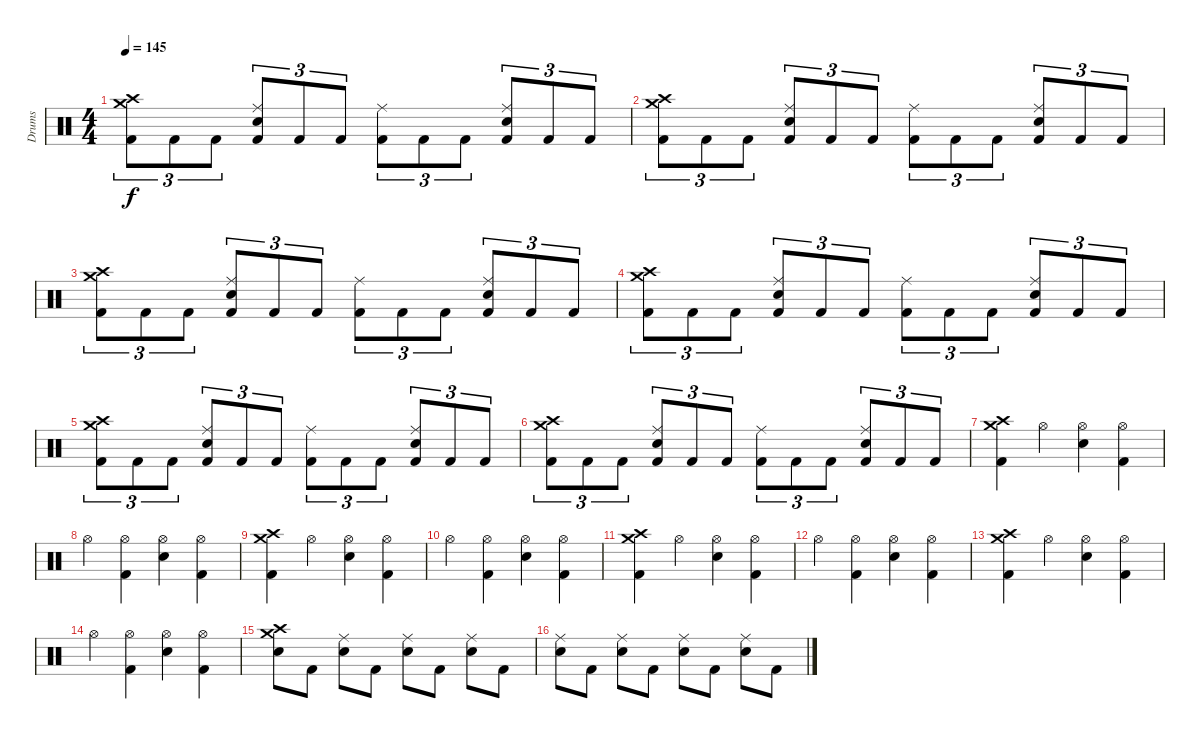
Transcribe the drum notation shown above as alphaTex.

\track ("Drums" "Drums") {instrument percussion}
\staff {score}
\articulation defaults
\ts (4 4)
\tempo 145
\clef neutral
\ks c
("Crash medium (hit)" "Crash high (hit)" "Kick (hit) 2").8{tu (3 2) dy f} "Kick (hit) 2".8{tu (3 2)} "Kick (hit) 2".8{tu (3 2)} ("Ride (middle)" "Snare (hit) 2" "Kick (hit) 2").8{tu (3 2)} "Kick (hit) 2".8{tu (3 2)} "Kick (hit) 2".8{tu (3 2)} ("Ride (middle)" "Kick (hit) 2").8{tu (3 2)} "Kick (hit) 2".8{tu (3 2)} "Kick (hit) 2".8{tu (3 2)} ("Ride (middle)" "Snare (hit) 2" "Kick (hit) 2").8{tu (3 2)} "Kick (hit) 2".8{tu (3 2)} "Kick (hit) 2".8{tu (3 2)} |
("Crash medium (hit)" "Crash high (hit)" "Kick (hit) 2").8{tu (3 2)} "Kick (hit) 2".8{tu (3 2)} "Kick (hit) 2".8{tu (3 2)} ("Ride (middle)" "Snare (hit) 2" "Kick (hit) 2").8{tu (3 2)} "Kick (hit) 2".8{tu (3 2)} "Kick (hit) 2".8{tu (3 2)} ("Ride (middle)" "Kick (hit) 2").8{tu (3 2)} "Kick (hit) 2".8{tu (3 2)} "Kick (hit) 2".8{tu (3 2)} ("Ride (middle)" "Snare (hit) 2" "Kick (hit) 2").8{tu (3 2)} "Kick (hit) 2".8{tu (3 2)} "Kick (hit) 2".8{tu (3 2)} |
("Crash medium (hit)" "Crash high (hit)" "Kick (hit) 2").8{tu (3 2)} "Kick (hit) 2".8{tu (3 2)} "Kick (hit) 2".8{tu (3 2)} ("Ride (middle)" "Snare (hit) 2" "Kick (hit) 2").8{tu (3 2)} "Kick (hit) 2".8{tu (3 2)} "Kick (hit) 2".8{tu (3 2)} ("Ride (middle)" "Kick (hit) 2").8{tu (3 2)} "Kick (hit) 2".8{tu (3 2)} "Kick (hit) 2".8{tu (3 2)} ("Ride (middle)" "Snare (hit) 2" "Kick (hit) 2").8{tu (3 2)} "Kick (hit) 2".8{tu (3 2)} "Kick (hit) 2".8{tu (3 2)} |
("Crash medium (hit)" "Crash high (hit)" "Kick (hit) 2").8{tu (3 2)} "Kick (hit) 2".8{tu (3 2)} "Kick (hit) 2".8{tu (3 2)} ("Ride (middle)" "Snare (hit) 2" "Kick (hit) 2").8{tu (3 2)} "Kick (hit) 2".8{tu (3 2)} "Kick (hit) 2".8{tu (3 2)} ("Ride (middle)" "Kick (hit) 2").8{tu (3 2)} "Kick (hit) 2".8{tu (3 2)} "Kick (hit) 2".8{tu (3 2)} ("Ride (middle)" "Snare (hit) 2" "Kick (hit) 2").8{tu (3 2)} "Kick (hit) 2".8{tu (3 2)} "Kick (hit) 2".8{tu (3 2)} |
("Crash medium (hit)" "Crash high (hit)" "Kick (hit) 2").8{tu (3 2)} "Kick (hit) 2".8{tu (3 2)} "Kick (hit) 2".8{tu (3 2)} ("Ride (middle)" "Snare (hit) 2" "Kick (hit) 2").8{tu (3 2)} "Kick (hit) 2".8{tu (3 2)} "Kick (hit) 2".8{tu (3 2)} ("Ride (middle)" "Kick (hit) 2").8{tu (3 2)} "Kick (hit) 2".8{tu (3 2)} "Kick (hit) 2".8{tu (3 2)} ("Ride (middle)" "Snare (hit) 2" "Kick (hit) 2").8{tu (3 2)} "Kick (hit) 2".8{tu (3 2)} "Kick (hit) 2".8{tu (3 2)} |
("Crash medium (hit)" "Crash high (hit)" "Kick (hit) 2").8{tu (3 2)} "Kick (hit) 2".8{tu (3 2)} "Kick (hit) 2".8{tu (3 2)} ("Ride (middle)" "Snare (hit) 2" "Kick (hit) 2").8{tu (3 2)} "Kick (hit) 2".8{tu (3 2)} "Kick (hit) 2".8{tu (3 2)} ("Ride (middle)" "Kick (hit) 2").8{tu (3 2)} "Kick (hit) 2".8{tu (3 2)} "Kick (hit) 2".8{tu (3 2)} ("Ride (middle)" "Snare (hit) 2" "Kick (hit) 2").8{tu (3 2)} "Kick (hit) 2".8{tu (3 2)} "Kick (hit) 2".8{tu (3 2)} |
("Crash medium (hit)" "Crash high (hit)" "Kick (hit) 2").4 "Hi-Hat (open)".4 ("Hi-Hat (open)" "Snare (hit) 2").4 ("Hi-Hat (open)" "Kick (hit) 2").4 |
"Hi-Hat (open)".4 ("Hi-Hat (open)" "Kick (hit) 2").4 ("Hi-Hat (open)" "Snare (hit) 2").4 ("Hi-Hat (open)" "Kick (hit) 2").4 |
("Crash medium (hit)" "Crash high (hit)" "Kick (hit) 2").4 "Hi-Hat (open)".4 ("Hi-Hat (open)" "Snare (hit) 2").4 ("Hi-Hat (open)" "Kick (hit) 2").4 |
"Hi-Hat (open)".4 ("Hi-Hat (open)" "Kick (hit) 2").4 ("Hi-Hat (open)" "Snare (hit) 2").4 ("Hi-Hat (open)" "Kick (hit) 2").4 |
("Crash medium (hit)" "Crash high (hit)" "Kick (hit) 2").4 "Hi-Hat (open)".4 ("Hi-Hat (open)" "Snare (hit) 2").4 ("Hi-Hat (open)" "Kick (hit) 2").4 |
"Hi-Hat (open)".4 ("Hi-Hat (open)" "Kick (hit) 2").4 ("Hi-Hat (open)" "Snare (hit) 2").4 ("Hi-Hat (open)" "Kick (hit) 2").4 |
("Crash medium (hit)" "Crash high (hit)" "Kick (hit) 2").4 "Hi-Hat (open)".4 ("Hi-Hat (open)" "Snare (hit) 2").4 ("Hi-Hat (open)" "Kick (hit) 2").4 |
"Hi-Hat (open)".4 ("Hi-Hat (open)" "Kick (hit) 2").4 ("Hi-Hat (open)" "Snare (hit) 2").4 ("Hi-Hat (open)" "Kick (hit) 2").4 |
("Crash medium (hit)" "Snare (hit) 2" "Crash high (hit)").8 "Kick (hit) 2".8 ("Ride (middle)" "Snare (hit) 2").8 "Kick (hit) 2".8 ("Ride (middle)" "Snare (hit) 2").8 "Kick (hit) 2".8 ("Ride (middle)" "Snare (hit) 2").8 "Kick (hit) 2".8 |
("Ride (middle)" "Snare (hit) 2").8 "Kick (hit) 2".8 ("Ride (middle)" "Snare (hit) 2").8 "Kick (hit) 2".8 ("Ride (middle)" "Snare (hit) 2").8 "Kick (hit) 2".8 ("Ride (middle)" "Snare (hit) 2").8 "Kick (hit) 2".8
